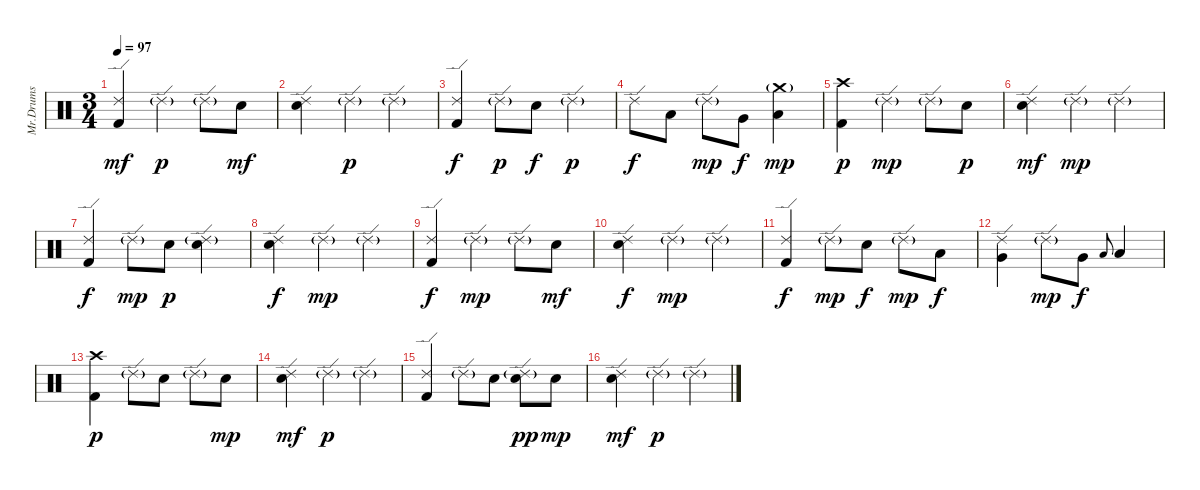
\track ("Mr.Drums" "Mr.Drums") {instrument percussion}
\staff {score}
\articulation defaults
\ts (3 4)
\tempo 97
\clef neutral
\ks c
("Ride (edge) 2" "Kick (hit) 2").4{dy mf} "Ride (edge) 2"{g}.4{dy p} "Ride (edge) 2"{g}.8 "Electric Snare (hit)".8{dy mf} |
("Ride (edge) 2" "Electric Snare (hit)").4 "Ride (edge) 2"{g}.4{dy p} "Ride (edge) 2"{g}.4 |
("Ride (edge) 2" "Kick (hit) 2").4{dy f} "Ride (edge) 2"{g}.8{dy p} "Electric Snare (hit)".8{dy f} "Ride (edge) 2"{g}.4{dy p} |
"Ride (edge) 2".8{dy f} "Low Tom (hit)".8 "Ride (edge) 2"{g}.8{dy mp} "Very Low Tom (hit)".8{dy f} ("Crash medium (hit)"{g} "Low Floor Tom (hit)").4{dy mp} |
("Crash high (hit)" "Kick (hit) 2").4{dy p} "Ride (edge) 2"{g}.4{dy mp} "Ride (edge) 2"{g}.8 "Electric Snare (hit)".8{dy p} |
("Ride (edge) 2" "Electric Snare (hit)").4{dy mf} "Ride (edge) 2"{g}.4{dy mp} "Ride (edge) 2"{g}.4 |
("Ride (edge) 2" "Kick (hit) 2").4{dy f} "Ride (edge) 2"{g}.8{dy mp} "Electric Snare (hit)".8{dy p} ("Ride (edge) 2"{g} "Electric Snare (hit)").4 |
("Ride (edge) 2" "Electric Snare (hit)").4{dy f} "Ride (edge) 2"{g}.4{dy mp} "Ride (edge) 2"{g}.4 |
("Ride (edge) 2" "Kick (hit) 2").4{dy f} "Ride (edge) 2"{g}.4{dy mp} "Ride (edge) 2"{g}.8 "Electric Snare (hit)".8{dy mf} |
("Ride (edge) 2" "Electric Snare (hit)").4{dy f} "Ride (edge) 2"{g}.4{dy mp} "Ride (edge) 2"{g}.4 |
("Ride (edge) 2" "Kick (hit) 2").4{dy f} "Ride (edge) 2"{g}.8{dy mp} "Electric Snare (hit)".8{dy f} "Ride (edge) 2"{g}.8{dy mp} "Low Tom (hit)".8{dy f} |
("Ride (edge) 2" "Very Low Tom (hit)").4 "Ride (edge) 2"{g}.8{dy mp} "Very Low Tom (hit)".8{dy f} "Low Floor Tom (hit)".8{gr onbeat} "Low Floor Tom (hit)".4 |
("Crash high (hit)" "Kick (hit) 2").4{dy p} "Ride (edge) 2"{g}.8 "Electric Snare (hit)".8 "Ride (edge) 2"{g}.8 "Electric Snare (hit)".8{dy mp} |
("Ride (edge) 2" "Electric Snare (hit)").4{dy mf} "Ride (edge) 2"{g}.4{dy p} "Ride (edge) 2"{g}.4 |
("Ride (edge) 2" "Kick (hit) 2").4 "Ride (edge) 2"{g}.8 "Electric Snare (hit)".8 ("Ride (edge) 2"{g} "Electric Snare (hit)").8{dy pp} "Electric Snare (hit)".8{dy mp} |
("Ride (edge) 2" "Electric Snare (hit)").4{dy mf} "Ride (edge) 2"{g}.4{dy p} "Ride (edge) 2"{g}.4
